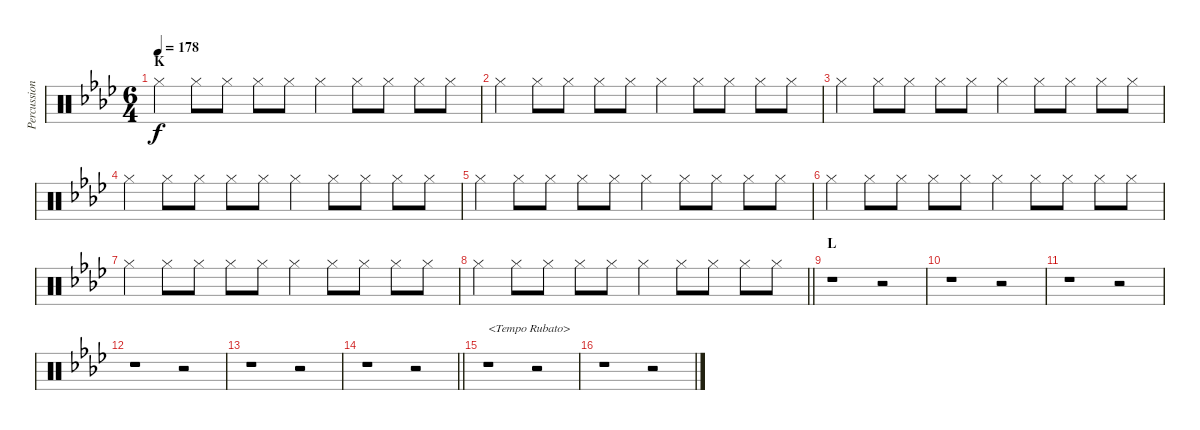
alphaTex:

\track ("Percussion" "Percussion") {instrument percussion}
\staff {score}
\articulation defaults
\ts (6 4)
\section ("" "K")
\tempo 178
\clef neutral
\ks ab "Hi-Hat (closed)".4{dy f} "Hi-Hat (closed)".8 "Hi-Hat (closed)".8 "Hi-Hat (closed)".8 "Hi-Hat (closed)".8 "Hi-Hat (closed)".4 "Hi-Hat (closed)".8 "Hi-Hat (closed)".8 "Hi-Hat (closed)".8 "Hi-Hat (closed)".8
|
"Hi-Hat (closed)".4 "Hi-Hat (closed)".8 "Hi-Hat (closed)".8 "Hi-Hat (closed)".8 "Hi-Hat (closed)".8 "Hi-Hat (closed)".4 "Hi-Hat (closed)".8 "Hi-Hat (closed)".8 "Hi-Hat (closed)".8 "Hi-Hat (closed)".8 |
"Hi-Hat (closed)".4 "Hi-Hat (closed)".8 "Hi-Hat (closed)".8 "Hi-Hat (closed)".8 "Hi-Hat (closed)".8 "Hi-Hat (closed)".4 "Hi-Hat (closed)".8 "Hi-Hat (closed)".8 "Hi-Hat (closed)".8 "Hi-Hat (closed)".8 |
"Hi-Hat (closed)".4 "Hi-Hat (closed)".8 "Hi-Hat (closed)".8 "Hi-Hat (closed)".8 "Hi-Hat (closed)".8 "Hi-Hat (closed)".4 "Hi-Hat (closed)".8 "Hi-Hat (closed)".8 "Hi-Hat (closed)".8 "Hi-Hat (closed)".8 |
"Hi-Hat (closed)".4 "Hi-Hat (closed)".8 "Hi-Hat (closed)".8 "Hi-Hat (closed)".8 "Hi-Hat (closed)".8 "Hi-Hat (closed)".4 "Hi-Hat (closed)".8 "Hi-Hat (closed)".8 "Hi-Hat (closed)".8 "Hi-Hat (closed)".8 |
"Hi-Hat (closed)".4 "Hi-Hat (closed)".8 "Hi-Hat (closed)".8 "Hi-Hat (closed)".8 "Hi-Hat (closed)".8 "Hi-Hat (closed)".4 "Hi-Hat (closed)".8 "Hi-Hat (closed)".8 "Hi-Hat (closed)".8 "Hi-Hat (closed)".8 |
"Hi-Hat (closed)".4 "Hi-Hat (closed)".8 "Hi-Hat (closed)".8 "Hi-Hat (closed)".8 "Hi-Hat (closed)".8 "Hi-Hat (closed)".4 "Hi-Hat (closed)".8 "Hi-Hat (closed)".8 "Hi-Hat (closed)".8 "Hi-Hat (closed)".8 |
\barLineRight lightlight "Hi-Hat (closed)".4 "Hi-Hat (closed)".8 "Hi-Hat (closed)".8 "Hi-Hat (closed)".8 "Hi-Hat (closed)".8 "Hi-Hat (closed)".4 "Hi-Hat (closed)".8 "Hi-Hat (closed)".8 "Hi-Hat (closed)".8 "Hi-Hat (closed)".8
|
\section ("" "L")
r.1 r.2 |
r.1 r.2 |
r.1 r.2 |
r.1 r.2 |
r.1 r.2 |
\barLineRight lightlight
r.1 r.2 |
r.1{txt "<Tempo Rubato>"} r.2 |
r.1 r.2
